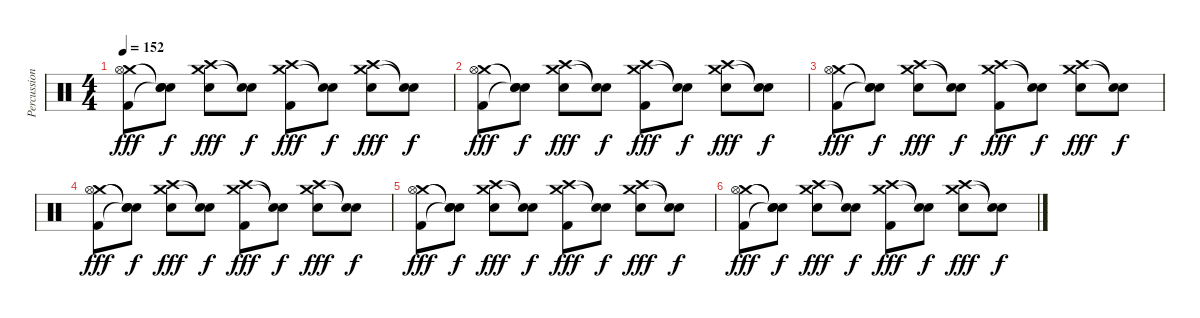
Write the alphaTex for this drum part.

\track ("Percussion" "Percussion") {instrument percussion}
\staff {score}
\articulation defaults
\ts (4 4)
\tempo 152
\clef neutral
\ks c
("Crash medium (hit)" "Hi-Hat (open)" "Kick (hit) 2").8{dy fff} ("Snare (hit)"{t} "Snare (hit)"{t} "Snare (hit)"{t}).8{dy f} ("Crash medium (hit)" "Crash high (hit)" "Electric Snare (hit)").8{dy fff} ("Snare (hit)"{t} "Snare (hit)"{t}).8{dy f} ("Crash medium (hit)" "Crash high (hit)" "Kick (hit) 2").8{dy fff} ("Snare (hit)"{t} "Snare (hit)"{t}).8{dy f} ("Crash medium (hit)" "Crash high (hit)" "Electric Snare (hit)").8{dy fff} ("Snare (hit)"{t} "Snare (hit)"{t}).8{dy f} |
("Crash medium (hit)" "Hi-Hat (open)" "Kick (hit) 2").8{dy fff} ("Snare (hit)"{t} "Snare (hit)"{t} "Snare (hit)"{t}).8{dy f} ("Crash medium (hit)" "Crash high (hit)" "Electric Snare (hit)").8{dy fff} ("Snare (hit)"{t} "Snare (hit)"{t}).8{dy f} ("Crash medium (hit)" "Crash high (hit)" "Kick (hit) 2").8{dy fff} ("Snare (hit)"{t} "Snare (hit)"{t}).8{dy f} ("Crash medium (hit)" "Crash high (hit)" "Electric Snare (hit)").8{dy fff} ("Snare (hit)"{t} "Snare (hit)"{t}).8{dy f} |
("Crash medium (hit)" "Hi-Hat (open)" "Kick (hit) 2").8{dy fff} ("Snare (hit)"{t} "Snare (hit)"{t} "Snare (hit)"{t}).8{dy f} ("Crash medium (hit)" "Crash high (hit)" "Electric Snare (hit)").8{dy fff} ("Snare (hit)"{t} "Snare (hit)"{t}).8{dy f} ("Crash medium (hit)" "Crash high (hit)" "Kick (hit) 2").8{dy fff} ("Snare (hit)"{t} "Snare (hit)"{t}).8{dy f} ("Crash medium (hit)" "Crash high (hit)" "Electric Snare (hit)").8{dy fff} ("Snare (hit)"{t} "Snare (hit)"{t}).8{dy f} |
("Crash medium (hit)" "Hi-Hat (open)" "Kick (hit) 2").8{dy fff} ("Snare (hit)"{t} "Snare (hit)"{t} "Snare (hit)"{t}).8{dy f} ("Crash medium (hit)" "Crash high (hit)" "Electric Snare (hit)").8{dy fff} ("Snare (hit)"{t} "Snare (hit)"{t}).8{dy f} ("Crash medium (hit)" "Crash high (hit)" "Kick (hit) 2").8{dy fff} ("Snare (hit)"{t} "Snare (hit)"{t}).8{dy f} ("Crash medium (hit)" "Crash high (hit)" "Electric Snare (hit)").8{dy fff} ("Snare (hit)"{t} "Snare (hit)"{t}).8{dy f} |
("Crash medium (hit)" "Hi-Hat (open)" "Kick (hit) 2").8{dy fff} ("Snare (hit)"{t} "Snare (hit)"{t} "Snare (hit)"{t}).8{dy f} ("Crash medium (hit)" "Crash high (hit)" "Electric Snare (hit)").8{dy fff} ("Snare (hit)"{t} "Snare (hit)"{t}).8{dy f} ("Crash medium (hit)" "Crash high (hit)" "Kick (hit) 2").8{dy fff} ("Snare (hit)"{t} "Snare (hit)"{t}).8{dy f} ("Crash medium (hit)" "Crash high (hit)" "Electric Snare (hit)").8{dy fff} ("Snare (hit)"{t} "Snare (hit)"{t}).8{dy f} |
("Crash medium (hit)" "Hi-Hat (open)" "Kick (hit) 2").8{dy fff} ("Snare (hit)"{t} "Snare (hit)"{t} "Snare (hit)"{t}).8{dy f} ("Crash medium (hit)" "Crash high (hit)" "Electric Snare (hit)").8{dy fff} ("Snare (hit)"{t} "Snare (hit)"{t}).8{dy f} ("Crash medium (hit)" "Crash high (hit)" "Kick (hit) 2").8{dy fff} ("Snare (hit)"{t} "Snare (hit)"{t}).8{dy f} ("Crash medium (hit)" "Crash high (hit)" "Electric Snare (hit)").8{dy fff} ("Snare (hit)"{t} "Snare (hit)"{t}).8{dy f}
